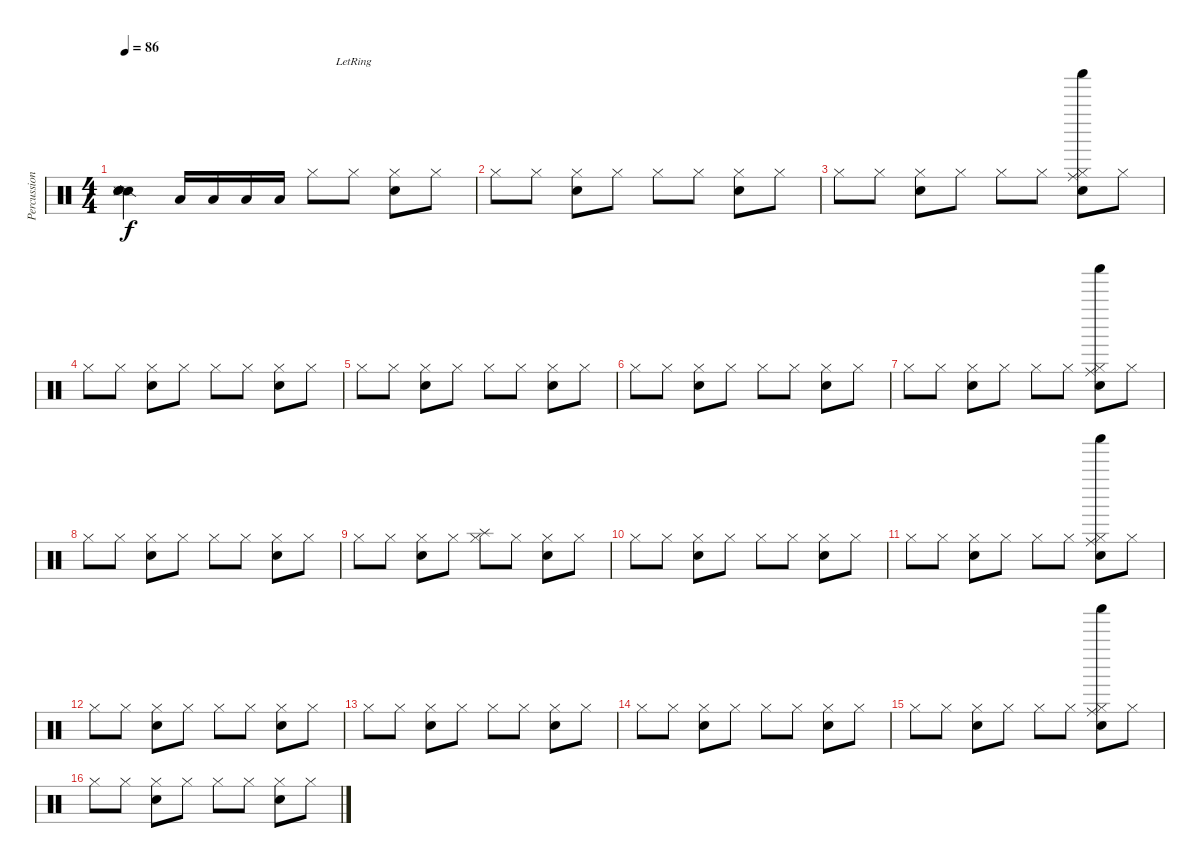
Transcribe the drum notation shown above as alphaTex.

\track ("Percussion" "Percussion") {instrument percussion}
\staff {score}
\articulation defaults
\ts (4 4)
\tempo 86
\clef neutral
\ks c
("Snare (side stick) 2" "Electric Snare (hit)" "Snare (side stick) 3" "Snare (hit) 2").4{dy f} "Low Floor Tom (hit)".16 "Low Floor Tom (hit)".16 "Low Floor Tom (hit)".16 "Low Floor Tom (hit)".16 "Hi-Hat (closed)".8 "Hi-Hat (closed)"{lr}.8 ("Electric Snare (hit)" "Hi-Hat (closed)").8 "Hi-Hat (closed)".8 |
"Hi-Hat (closed)".8 "Hi-Hat (closed)".8 ("Electric Snare (hit)" "Hi-Hat (closed)").8 "Hi-Hat (closed)".8 "Hi-Hat (closed)".8 "Hi-Hat (closed)".8 ("Electric Snare (hit)" "Hi-Hat (closed)").8 "Hi-Hat (closed)".8 |
"Hi-Hat (closed)".8 "Hi-Hat (closed)".8 ("Electric Snare (hit)" "Hi-Hat (closed)").8 "Hi-Hat (closed)".8 "Hi-Hat (closed)".8 "Hi-Hat (closed)".8 ("Electric Snare (hit)" "Shaker (hit)" "Ride (middle)" "Hi-Hat (closed)").8 "Hi-Hat (closed)".8 |
"Hi-Hat (closed)".8 "Hi-Hat (closed)".8 ("Electric Snare (hit)" "Hi-Hat (closed)").8 "Hi-Hat (closed)".8 "Hi-Hat (closed)".8 "Hi-Hat (closed)".8 ("Electric Snare (hit)" "Hi-Hat (closed)").8 "Hi-Hat (closed)".8 |
"Hi-Hat (closed)".8 "Hi-Hat (closed)".8 ("Electric Snare (hit)" "Hi-Hat (closed)").8 "Hi-Hat (closed)".8 "Hi-Hat (closed)".8 "Hi-Hat (closed)".8 ("Electric Snare (hit)" "Hi-Hat (closed)").8 "Hi-Hat (closed)".8 |
"Hi-Hat (closed)".8 "Hi-Hat (closed)".8 ("Electric Snare (hit)" "Hi-Hat (closed)").8 "Hi-Hat (closed)".8 "Hi-Hat (closed)".8 "Hi-Hat (closed)".8 ("Electric Snare (hit)" "Hi-Hat (closed)").8 "Hi-Hat (closed)".8 |
"Hi-Hat (closed)".8 "Hi-Hat (closed)".8 ("Electric Snare (hit)" "Hi-Hat (closed)").8 "Hi-Hat (closed)".8 "Hi-Hat (closed)".8 "Hi-Hat (closed)".8 ("Electric Snare (hit)" "Shaker (hit)" "Ride (middle)" "Hi-Hat (closed)").8 "Hi-Hat (closed)".8 |
"Hi-Hat (closed)".8 "Hi-Hat (closed)".8 ("Electric Snare (hit)" "Hi-Hat (closed)").8 "Hi-Hat (closed)".8 "Hi-Hat (closed)".8 "Hi-Hat (closed)".8 ("Electric Snare (hit)" "Hi-Hat (closed)").8 "Hi-Hat (closed)".8 |
"Hi-Hat (closed)".8 "Hi-Hat (closed)".8 ("Electric Snare (hit)" "Hi-Hat (closed)").8 "Hi-Hat (closed)".8 ("Splash (hit)" "Hi-Hat (closed)").8 "Hi-Hat (closed)".8 ("Electric Snare (hit)" "Hi-Hat (closed)").8 "Hi-Hat (closed)".8 |
"Hi-Hat (closed)".8 "Hi-Hat (closed)".8 ("Electric Snare (hit)" "Hi-Hat (closed)").8 "Hi-Hat (closed)".8 "Hi-Hat (closed)".8 "Hi-Hat (closed)".8 ("Electric Snare (hit)" "Hi-Hat (closed)").8 "Hi-Hat (closed)".8 |
"Hi-Hat (closed)".8 "Hi-Hat (closed)".8 ("Electric Snare (hit)" "Hi-Hat (closed)").8 "Hi-Hat (closed)".8 "Hi-Hat (closed)".8 "Hi-Hat (closed)".8 ("Electric Snare (hit)" "Shaker (hit)" "Ride (middle)" "Hi-Hat (closed)").8 "Hi-Hat (closed)".8 |
"Hi-Hat (closed)".8 "Hi-Hat (closed)".8 ("Electric Snare (hit)" "Hi-Hat (closed)").8 "Hi-Hat (closed)".8 "Hi-Hat (closed)".8 "Hi-Hat (closed)".8 ("Electric Snare (hit)" "Hi-Hat (closed)").8 "Hi-Hat (closed)".8 |
"Hi-Hat (closed)".8 "Hi-Hat (closed)".8 ("Electric Snare (hit)" "Hi-Hat (closed)").8 "Hi-Hat (closed)".8 "Hi-Hat (closed)".8 "Hi-Hat (closed)".8 ("Electric Snare (hit)" "Hi-Hat (closed)").8 "Hi-Hat (closed)".8 |
"Hi-Hat (closed)".8 "Hi-Hat (closed)".8 ("Electric Snare (hit)" "Hi-Hat (closed)").8 "Hi-Hat (closed)".8 "Hi-Hat (closed)".8 "Hi-Hat (closed)".8 ("Electric Snare (hit)" "Hi-Hat (closed)").8 "Hi-Hat (closed)".8 |
"Hi-Hat (closed)".8 "Hi-Hat (closed)".8 ("Electric Snare (hit)" "Hi-Hat (closed)").8 "Hi-Hat (closed)".8 "Hi-Hat (closed)".8 "Hi-Hat (closed)".8 ("Electric Snare (hit)" "Shaker (hit)" "Ride (middle)" "Hi-Hat (closed)").8 "Hi-Hat (closed)".8 |
"Hi-Hat (closed)".8 "Hi-Hat (closed)".8 ("Electric Snare (hit)" "Hi-Hat (closed)").8 "Hi-Hat (closed)".8 "Hi-Hat (closed)".8 "Hi-Hat (closed)".8 ("Electric Snare (hit)" "Hi-Hat (closed)").8 "Hi-Hat (closed)".8
